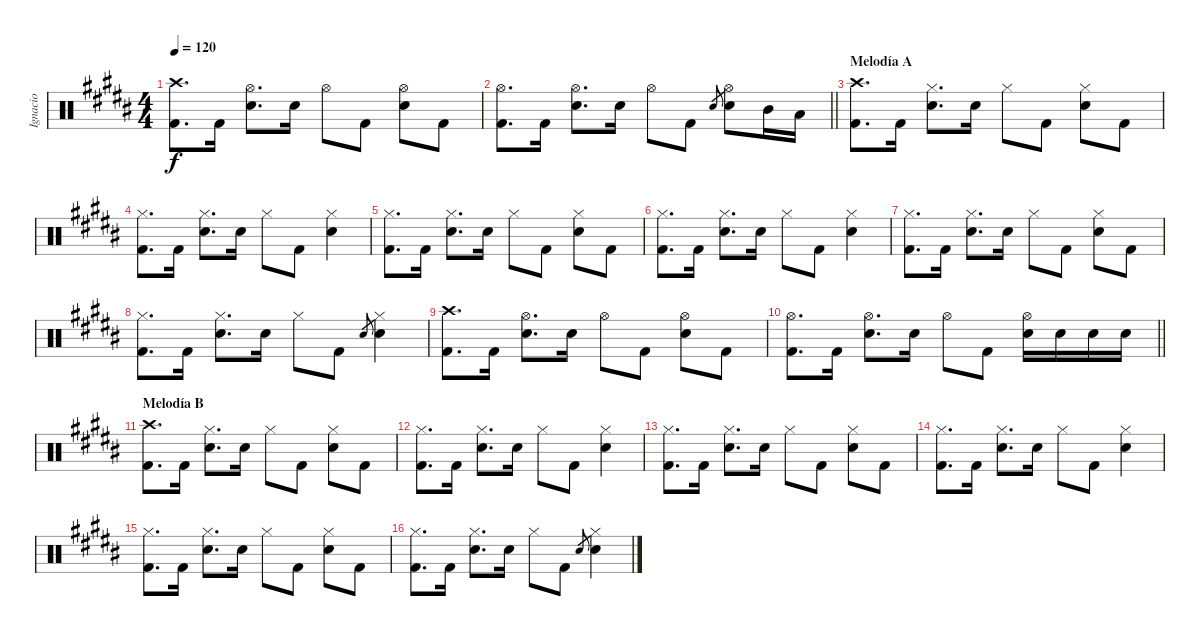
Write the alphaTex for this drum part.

\track ("Ignacio" "Ignacio") {instrument percussion}
\staff {score}
\articulation defaults
\ts (4 4)
\tempo 120
\clef neutral
\ks b
("Crash high (hit)" "Kick (hit) 2").8{d dy f} "Kick (hit) 2".16 ("Hi-Hat (open)" "Snare (hit) 2").8{d} "Snare (hit) 2".16 "Hi-Hat (open)".8 "Kick (hit) 2".8 ("Hi-Hat (open)" "Snare (hit) 2").8 "Kick (hit) 2".8 |
\barLineRight lightlight
("Hi-Hat (open)" "Kick (hit) 2").8{d} "Kick (hit) 2".16 ("Hi-Hat (open)" "Snare (hit) 2").8{d} "Snare (hit) 2".16 "Hi-Hat (open)".8 "Kick (hit) 2".8 "Snare (hit) 2".8{gr} ("Hi-Hat (open)" "Snare (hit) 2").8 "Mid Tom (hit)".16 "Low Tom (hit)".16 |
\section ("" "Melodía A")
("Crash high (hit)" "Kick (hit) 2").8{d} "Kick (hit) 2".16 ("Hi-Hat (closed)" "Snare (hit) 2").8{d} "Snare (hit) 2".16 "Hi-Hat (closed)".8 "Kick (hit) 2".8 ("Hi-Hat (closed)" "Snare (hit) 2").8 "Kick (hit) 2".8 |
("Hi-Hat (closed)" "Kick (hit) 2").8{d} "Kick (hit) 2".16 ("Hi-Hat (closed)" "Snare (hit) 2").8{d} "Snare (hit) 2".16 "Hi-Hat (closed)".8 "Kick (hit) 2".8 ("Hi-Hat (closed)" "Snare (hit) 2").4 |
("Hi-Hat (closed)" "Kick (hit) 2").8{d} "Kick (hit) 2".16 ("Hi-Hat (closed)" "Snare (hit) 2").8{d} "Snare (hit) 2".16 "Hi-Hat (closed)".8 "Kick (hit) 2".8 ("Hi-Hat (closed)" "Snare (hit) 2").8 "Kick (hit) 2".8 |
("Hi-Hat (closed)" "Kick (hit) 2").8{d} "Kick (hit) 2".16 ("Hi-Hat (closed)" "Snare (hit) 2").8{d} "Snare (hit) 2".16 "Hi-Hat (closed)".8 "Kick (hit) 2".8 ("Hi-Hat (closed)" "Snare (hit) 2").4 |
("Hi-Hat (closed)" "Kick (hit) 2").8{d} "Kick (hit) 2".16 ("Hi-Hat (closed)" "Snare (hit) 2").8{d} "Snare (hit) 2".16 "Hi-Hat (closed)".8 "Kick (hit) 2".8 ("Hi-Hat (closed)" "Snare (hit) 2").8 "Kick (hit) 2".8 |
("Hi-Hat (closed)" "Kick (hit) 2").8{d} "Kick (hit) 2".16 ("Hi-Hat (closed)" "Snare (hit) 2").8{d} "Snare (hit) 2".16 "Hi-Hat (closed)".8 "Kick (hit) 2".8 "Snare (hit) 2".8{gr} ("Hi-Hat (closed)" "Snare (hit) 2").4 |
("Crash high (hit)" "Kick (hit) 2").8{d} "Kick (hit) 2".16 ("Hi-Hat (open)" "Snare (hit) 2").8{d} "Snare (hit) 2".16 "Hi-Hat (open)".8 "Kick (hit) 2".8 ("Hi-Hat (open)" "Snare (hit) 2").8 "Kick (hit) 2".8 |
\barLineRight lightlight
("Hi-Hat (open)" "Kick (hit) 2").8{d} "Kick (hit) 2".16 ("Hi-Hat (open)" "Snare (hit) 2").8{d} "Snare (hit) 2".16 "Hi-Hat (open)".8 "Kick (hit) 2".8 ("Hi-Hat (open)" "Snare (hit) 2").16 "Snare (hit) 2".16 "Snare (hit) 2".16 "Snare (hit) 2".16 |
\section ("" "Melodía B")
("Crash high (hit)" "Kick (hit) 2").8{d} "Kick (hit) 2".16 ("Hi-Hat (closed)" "Snare (hit) 2").8{d} "Snare (hit) 2".16 "Hi-Hat (closed)".8 "Kick (hit) 2".8 ("Hi-Hat (closed)" "Snare (hit) 2").8 "Kick (hit) 2".8 |
("Hi-Hat (closed)" "Kick (hit) 2").8{d} "Kick (hit) 2".16 ("Hi-Hat (closed)" "Snare (hit) 2").8{d} "Snare (hit) 2".16 "Hi-Hat (closed)".8 "Kick (hit) 2".8 ("Hi-Hat (closed)" "Snare (hit) 2").4 |
("Hi-Hat (closed)" "Kick (hit) 2").8{d} "Kick (hit) 2".16 ("Hi-Hat (closed)" "Snare (hit) 2").8{d} "Snare (hit) 2".16 "Hi-Hat (closed)".8 "Kick (hit) 2".8 ("Hi-Hat (closed)" "Snare (hit) 2").8 "Kick (hit) 2".8 |
("Hi-Hat (closed)" "Kick (hit) 2").8{d} "Kick (hit) 2".16 ("Hi-Hat (closed)" "Snare (hit) 2").8{d} "Snare (hit) 2".16 "Hi-Hat (closed)".8 "Kick (hit) 2".8 ("Hi-Hat (closed)" "Snare (hit) 2").4 |
("Hi-Hat (closed)" "Kick (hit) 2").8{d} "Kick (hit) 2".16 ("Hi-Hat (closed)" "Snare (hit) 2").8{d} "Snare (hit) 2".16 "Hi-Hat (closed)".8 "Kick (hit) 2".8 ("Hi-Hat (closed)" "Snare (hit) 2").8 "Kick (hit) 2".8 |
("Hi-Hat (closed)" "Kick (hit) 2").8{d} "Kick (hit) 2".16 ("Hi-Hat (closed)" "Snare (hit) 2").8{d} "Snare (hit) 2".16 "Hi-Hat (closed)".8 "Kick (hit) 2".8 "Snare (hit) 2".8{gr} ("Hi-Hat (closed)" "Snare (hit) 2").4
